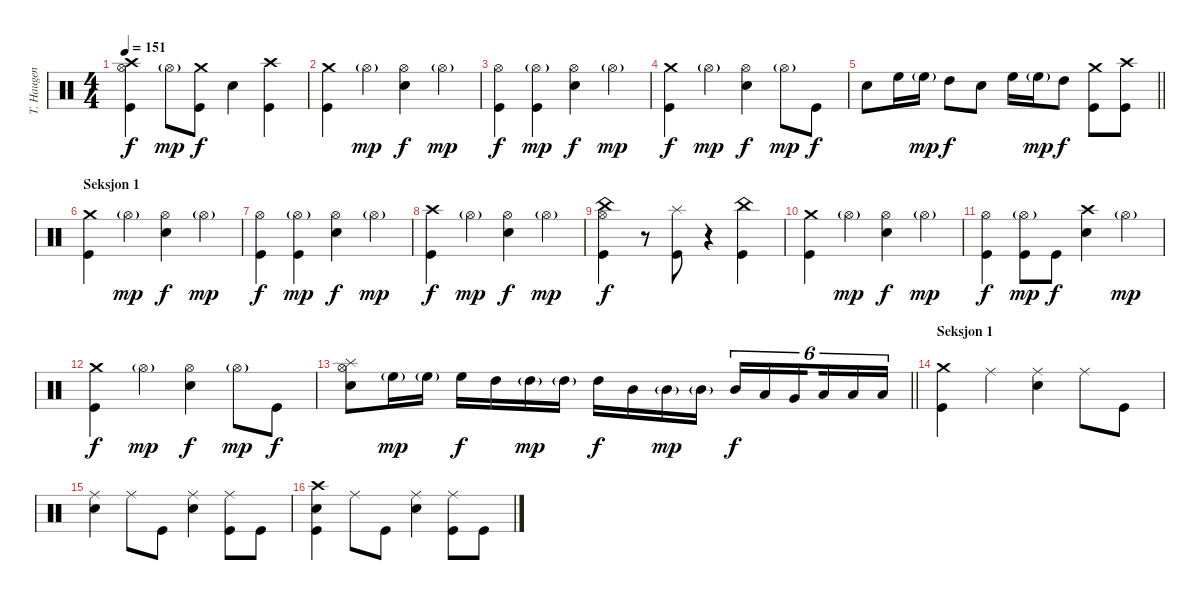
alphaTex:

\track ("T. Haugen" "T. Haugen") {instrument percussion}
\staff {score}
\articulation defaults
\ts (4 4)
\tempo 151
\clef neutral
\ks c
("Crash high (hit)" "Hi-Hat (open)" "Kick (hit)").4{dy f} "Hi-Hat (open)"{g}.8{dy mp} ("Crash medium (hit)" "Kick (hit)").8{dy f} "Electric Snare (hit)".4 ("Crash high (hit)" "Kick (hit)").4 |
("Crash medium (hit)" "Kick (hit)").4 "Hi-Hat (open)"{g}.4{dy mp} ("Hi-Hat (open)" "Electric Snare (hit)").4{dy f} "Hi-Hat (open)"{g}.4{dy mp} |
("Hi-Hat (open)" "Kick (hit)").4{dy f} ("Hi-Hat (open)"{g} "Kick (hit)").4{dy mp} ("Hi-Hat (open)" "Electric Snare (hit)").4{dy f} "Hi-Hat (open)"{g}.4{dy mp} |
("Crash medium (hit)" "Kick (hit)").4{dy f} "Hi-Hat (open)"{g}.4{dy mp} ("Hi-Hat (open)" "Electric Snare (hit)").4{dy f} "Hi-Hat (open)"{g}.8{dy mp} "Kick (hit)".8{dy f} |
\barLineRight lightlight "Electric Snare (hit)".8 "High Floor Tom (hit)".16 "High Floor Tom (hit)"{g}.16{dy mp} "High Tom (hit)".8{dy f} "Electric Snare (hit)".8 "High Floor Tom (hit)".16 "High Floor Tom (hit)"{g}.16{dy mp} "High Tom (hit)".8{dy f}
("Crash medium (hit)" "Kick (hit)").8 ("Crash high (hit)" "Kick (hit)").8 |
\section ("" "Seksjon 1")
("Crash medium (hit)" "Kick (hit)").4 "Hi-Hat (open)"{g}.4{dy mp} ("Hi-Hat (open)" "Electric Snare (hit)").4{dy f} "Hi-Hat (open)"{g}.4{dy mp} |
("Hi-Hat (open)" "Kick (hit)").4{dy f} ("Hi-Hat (open)"{g} "Kick (hit)").4{dy mp} ("Hi-Hat (open)" "Electric Snare (hit)").4{dy f} "Hi-Hat (open)"{g}.4{dy mp} |
("Crash high (hit)" "Kick (hit)").4{dy f} "Hi-Hat (open)"{g}.4{dy mp} ("Hi-Hat (open)" "Electric Snare (hit)").4{dy f} "Hi-Hat (open)"{g}.4{dy mp} |
("China (hit)" "Hi-Hat (open)" "Kick (hit)").4{dy f} r.8 ("Splash (hit)" "Kick (hit)").8 r.4 ("China (hit)" "Kick (hit)").4 |
("Crash medium (hit)" "Kick (hit)").4 "Hi-Hat (open)"{g}.4{dy mp} ("Hi-Hat (open)" "Electric Snare (hit)").4{dy f} "Hi-Hat (open)"{g}.4{dy mp} |
("Hi-Hat (open)" "Kick (hit)").4{dy f} ("Hi-Hat (open)"{g} "Kick (hit)").8{dy mp} "Kick (hit)".8{dy f} ("Crash high (hit)" "Electric Snare (hit)").4 "Hi-Hat (open)"{g}.4{dy mp} |
("Crash medium (hit)" "Kick (hit)").4{dy f} "Hi-Hat (open)"{g}.4{dy mp} ("Hi-Hat (open)" "Electric Snare (hit)").4{dy f} "Hi-Hat (open)"{g}.8{dy mp} "Kick (hit)".8{dy f} |
\barLineRight lightlight
("Splash (hit)" "Hi-Hat (open)" "Electric Snare (hit)").8 "High Floor Tom (hit)"{g}.16{dy mp} "High Floor Tom (hit)"{g}.16 "High Floor Tom (hit)".16{dy f} "High Tom (hit)".16 "High Tom (hit)"{g}.16{dy mp} "High Tom (hit)"{g}.16 "High Tom (hit)".16{dy f} "Mid Tom (hit)".16 "Mid Tom (hit)"{g}.16{dy mp} "Mid Tom (hit)"{g}.16 "Mid Tom (hit)".16{tu (6 4) dy f} "Low Tom (hit)".16{tu (6 4)} "Very Low Tom (hit)".16{tu (6 4) beam splitsecondary} "Low Floor Tom (hit)".16{tu (6 4)} "Low Floor Tom (hit)".16{tu (6 4)} "Low Floor Tom (hit)".16{tu (6 4)} |
\section ("" "Seksjon 1")
("Crash medium (hit)" "Kick (hit)").4 "Ride (middle)".4 ("Ride (middle)" "Electric Snare (hit)").4 "Ride (middle)".8 "Kick (hit)".8 |
("Ride (middle)" "Electric Snare (hit)").4 "Ride (middle)".8 "Kick (hit)".8 ("Ride (middle)" "Electric Snare (hit)").4 ("Ride (middle)" "Kick (hit)").8 "Kick (hit)".8 |
("Crash high (hit)" "Electric Snare (hit)" "Kick (hit)").4 "Ride (middle)".8 "Kick (hit)".8 ("Ride (middle)" "Electric Snare (hit)").4 ("Ride (middle)" "Kick (hit)").8 "Kick (hit)".8
